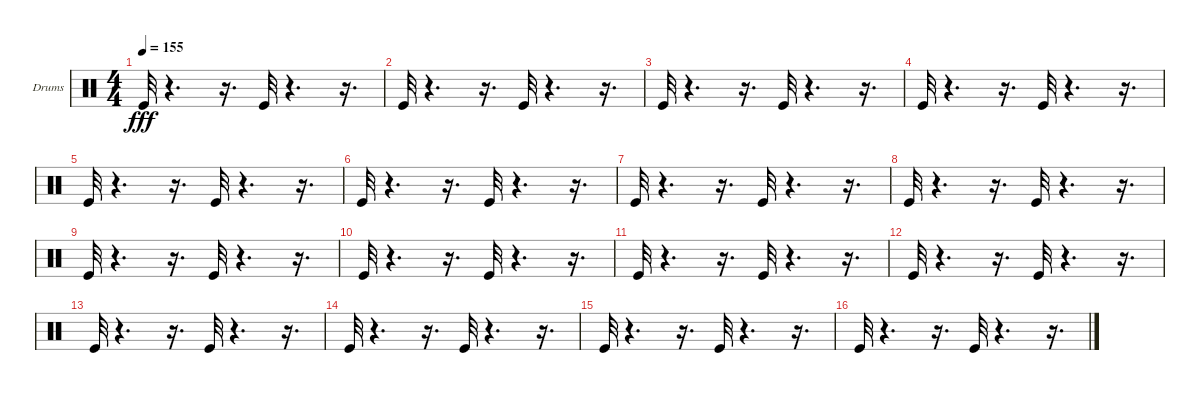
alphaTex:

\bracketExtendMode groupsimilarinstruments
\firstSystemTrackNameOrientation horizontal
\otherSystemsTrackNameOrientation horizontal
\track ("Е. Кулаков" "Drums") {instrument percussion}
\staff {score}
\articulation defaults
\ts (4 4)
\tempo 155
\clef neutral
\ks c "Kick (hit)".32{dy fff}
r.4{d} r.16{d} "Kick (hit)".32 r.4{d} r.16{d} |
"Kick (hit)".32 r.4{d} r.16{d} "Kick (hit)".32 r.4{d} r.16{d} |
"Kick (hit)".32 r.4{d} r.16{d} "Kick (hit)".32 r.4{d} r.16{d} |
"Kick (hit)".32 r.4{d} r.16{d} "Kick (hit)".32 r.4{d} r.16{d} |
"Kick (hit)".32 r.4{d} r.16{d} "Kick (hit)".32 r.4{d} r.16{d} |
"Kick (hit)".32 r.4{d} r.16{d} "Kick (hit)".32 r.4{d} r.16{d} |
"Kick (hit)".32 r.4{d} r.16{d} "Kick (hit)".32 r.4{d} r.16{d} |
"Kick (hit)".32 r.4{d} r.16{d} "Kick (hit)".32 r.4{d} r.16{d} |
"Kick (hit)".32 r.4{d} r.16{d} "Kick (hit)".32 r.4{d} r.16{d} |
"Kick (hit)".32 r.4{d} r.16{d} "Kick (hit)".32 r.4{d} r.16{d} |
"Kick (hit)".32 r.4{d} r.16{d} "Kick (hit)".32 r.4{d} r.16{d} |
"Kick (hit)".32 r.4{d} r.16{d} "Kick (hit)".32 r.4{d} r.16{d} |
"Kick (hit)".32 r.4{d} r.16{d} "Kick (hit)".32 r.4{d} r.16{d} |
"Kick (hit)".32 r.4{d} r.16{d} "Kick (hit)".32 r.4{d} r.16{d} |
"Kick (hit)".32 r.4{d} r.16{d} "Kick (hit)".32 r.4{d} r.16{d} |
"Kick (hit)".32 r.4{d} r.16{d} "Kick (hit)".32 r.4{d} r.16{d}
